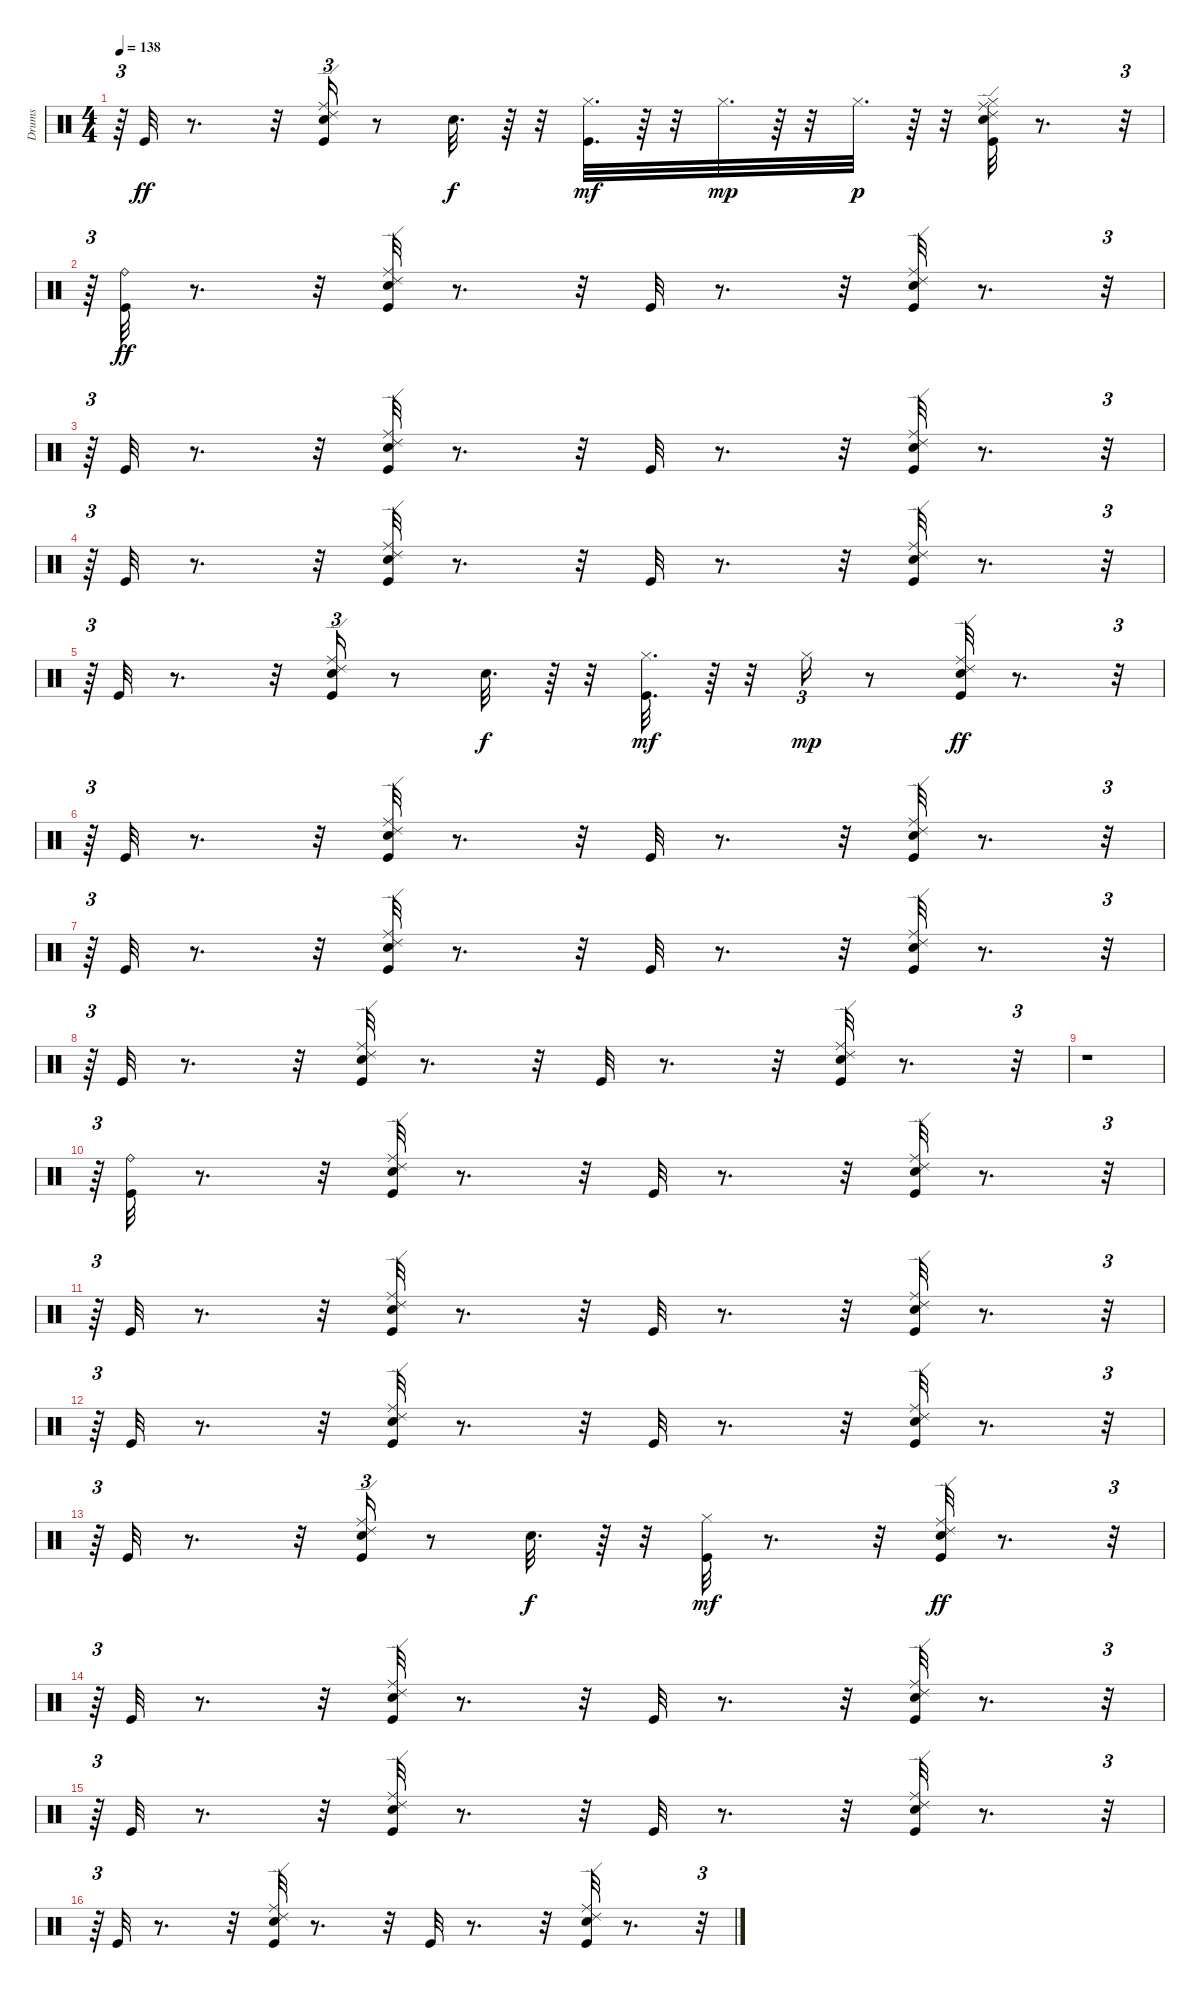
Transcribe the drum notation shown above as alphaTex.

\track ("Drums" "Drums") {instrument percussion}
\staff {score}
\articulation defaults
\ts (4 4)
\tempo 138
\clef neutral
\ks c
r.64{tu (3 2) dy ff} "Kick (hit)".32 r.8{d} r.32 ("Ride (middle)" "Ride (edge) 2" "Kick (hit)" "Hand Clap (hit)").16{tu (3 2)} r.8 "Hand Clap (hit)".32{d dy f} r.64 r.32 ("Kick (hit)" "Hi-Hat (closed)").32{d dy mf} r.64 r.32 "Hi-Hat (closed)".32{d dy mp} r.64 r.32 "Hi-Hat (closed)".32{d dy p} r.64 r.32 ("Ride (middle)" "Ride (edge) 2" "Hand Clap (hit)" "Kick (hit)" "Hi-Hat (closed)").32 r.8{d} r.32{tu (3 2)} |
r.64{tu (3 2)} ("Ride (bell)" "Kick (hit)").32{dy ff} r.8{d} r.32 ("Hand Clap (hit)" "Kick (hit)" "Ride (middle)" "Ride (edge) 2").32 r.8{d} r.32 "Kick (hit)".32 r.8{d} r.32 ("Ride (middle)" "Ride (edge) 2" "Hand Clap (hit)" "Kick (hit)").32 r.8{d} r.32{tu (3 2)} |
r.64{tu (3 2)} "Kick (hit)".32 r.8{d} r.32 ("Ride (middle)" "Ride (edge) 2" "Kick (hit)" "Hand Clap (hit)").32 r.8{d} r.32 "Kick (hit)".32 r.8{d} r.32 ("Ride (middle)" "Ride (edge) 2" "Kick (hit)" "Hand Clap (hit)").32 r.8{d} r.32{tu (3 2)} |
r.64{tu (3 2)} "Kick (hit)".32 r.8{d} r.32 ("Kick (hit)" "Hand Clap (hit)" "Ride (middle)" "Ride (edge) 2").32 r.8{d} r.32 "Kick (hit)".32 r.8{d} r.32 ("Ride (middle)" "Ride (edge) 2" "Hand Clap (hit)" "Kick (hit)").32 r.8{d} r.32{tu (3 2)} |
r.64{tu (3 2)} "Kick (hit)".32 r.8{d} r.32 ("Ride (middle)" "Ride (edge) 2" "Kick (hit)" "Hand Clap (hit)").16{tu (3 2)} r.8 "Hand Clap (hit)".32{d dy f} r.64 r.32 ("Kick (hit)" "Hi-Hat (closed)").32{d dy mf} r.64 r.32 "Hi-Hat (closed)".16{tu (3 2) dy mp} r.8 ("Ride (middle)" "Ride (edge) 2" "Hand Clap (hit)" "Kick (hit)").32{dy ff} r.8{d} r.32{tu (3 2)} |
r.64{tu (3 2)} "Kick (hit)".32 r.8{d} r.32 ("Hand Clap (hit)" "Kick (hit)" "Ride (middle)" "Ride (edge) 2").32 r.8{d} r.32 "Kick (hit)".32 r.8{d} r.32 ("Ride (middle)" "Ride (edge) 2" "Hand Clap (hit)" "Kick (hit)").32 r.8{d} r.32{tu (3 2)} |
r.64{tu (3 2)} "Kick (hit)".32 r.8{d} r.32 ("Ride (middle)" "Ride (edge) 2" "Kick (hit)" "Hand Clap (hit)").32 r.8{d} r.32 "Kick (hit)".32 r.8{d} r.32 ("Ride (middle)" "Ride (edge) 2" "Kick (hit)" "Hand Clap (hit)").32 r.8{d} r.32{tu (3 2)} |
r.64{tu (3 2)} "Kick (hit)".32 r.8{d} r.32 ("Kick (hit)" "Hand Clap (hit)" "Ride (middle)" "Ride (edge) 2").32 r.8{d} r.32 "Kick (hit)".32 r.8{d} r.32 ("Ride (middle)" "Ride (edge) 2" "Hand Clap (hit)" "Kick (hit)").32 r.8{d} r.32{tu (3 2)} |
r.1 |
r.64{tu (3 2)} ("Ride (bell)" "Kick (hit)").32 r.8{d} r.32 ("Hand Clap (hit)" "Kick (hit)" "Ride (middle)" "Ride (edge) 2").32 r.8{d} r.32 "Kick (hit)".32 r.8{d} r.32 ("Ride (middle)" "Ride (edge) 2" "Hand Clap (hit)" "Kick (hit)").32 r.8{d} r.32{tu (3 2)} |
r.64{tu (3 2)} "Kick (hit)".32 r.8{d} r.32 ("Ride (middle)" "Ride (edge) 2" "Kick (hit)" "Hand Clap (hit)").32 r.8{d} r.32 "Kick (hit)".32 r.8{d} r.32 ("Ride (middle)" "Ride (edge) 2" "Kick (hit)" "Hand Clap (hit)").32 r.8{d} r.32{tu (3 2)} |
r.64{tu (3 2)} "Kick (hit)".32 r.8{d} r.32 ("Kick (hit)" "Hand Clap (hit)" "Ride (middle)" "Ride (edge) 2").32 r.8{d} r.32 "Kick (hit)".32 r.8{d} r.32 ("Ride (middle)" "Ride (edge) 2" "Hand Clap (hit)" "Kick (hit)").32 r.8{d} r.32{tu (3 2)} |
r.64{tu (3 2)} "Kick (hit)".32 r.8{d} r.32 ("Ride (middle)" "Ride (edge) 2" "Kick (hit)" "Hand Clap (hit)").16{tu (3 2)} r.8 "Hand Clap (hit)".32{d dy f} r.64 r.32 ("Kick (hit)" "Hi-Hat (closed)").32{dy mf} r.8{d} r.32 ("Ride (middle)" "Ride (edge) 2" "Hand Clap (hit)" "Kick (hit)").32{dy ff} r.8{d} r.32{tu (3 2)} |
r.64{tu (3 2)} "Kick (hit)".32 r.8{d} r.32 ("Hand Clap (hit)" "Kick (hit)" "Ride (middle)" "Ride (edge) 2").32 r.8{d} r.32 "Kick (hit)".32 r.8{d} r.32 ("Ride (middle)" "Ride (edge) 2" "Hand Clap (hit)" "Kick (hit)").32 r.8{d} r.32{tu (3 2)} |
r.64{tu (3 2)} "Kick (hit)".32 r.8{d} r.32 ("Ride (middle)" "Ride (edge) 2" "Kick (hit)" "Hand Clap (hit)").32 r.8{d} r.32 "Kick (hit)".32 r.8{d} r.32 ("Ride (middle)" "Ride (edge) 2" "Kick (hit)" "Hand Clap (hit)").32 r.8{d} r.32{tu (3 2)} |
r.64{tu (3 2)} "Kick (hit)".32 r.8{d} r.32 ("Kick (hit)" "Hand Clap (hit)" "Ride (middle)" "Ride (edge) 2").32 r.8{d} r.32 "Kick (hit)".32 r.8{d} r.32 ("Ride (middle)" "Ride (edge) 2" "Hand Clap (hit)" "Kick (hit)").32 r.8{d} r.32{tu (3 2)}
